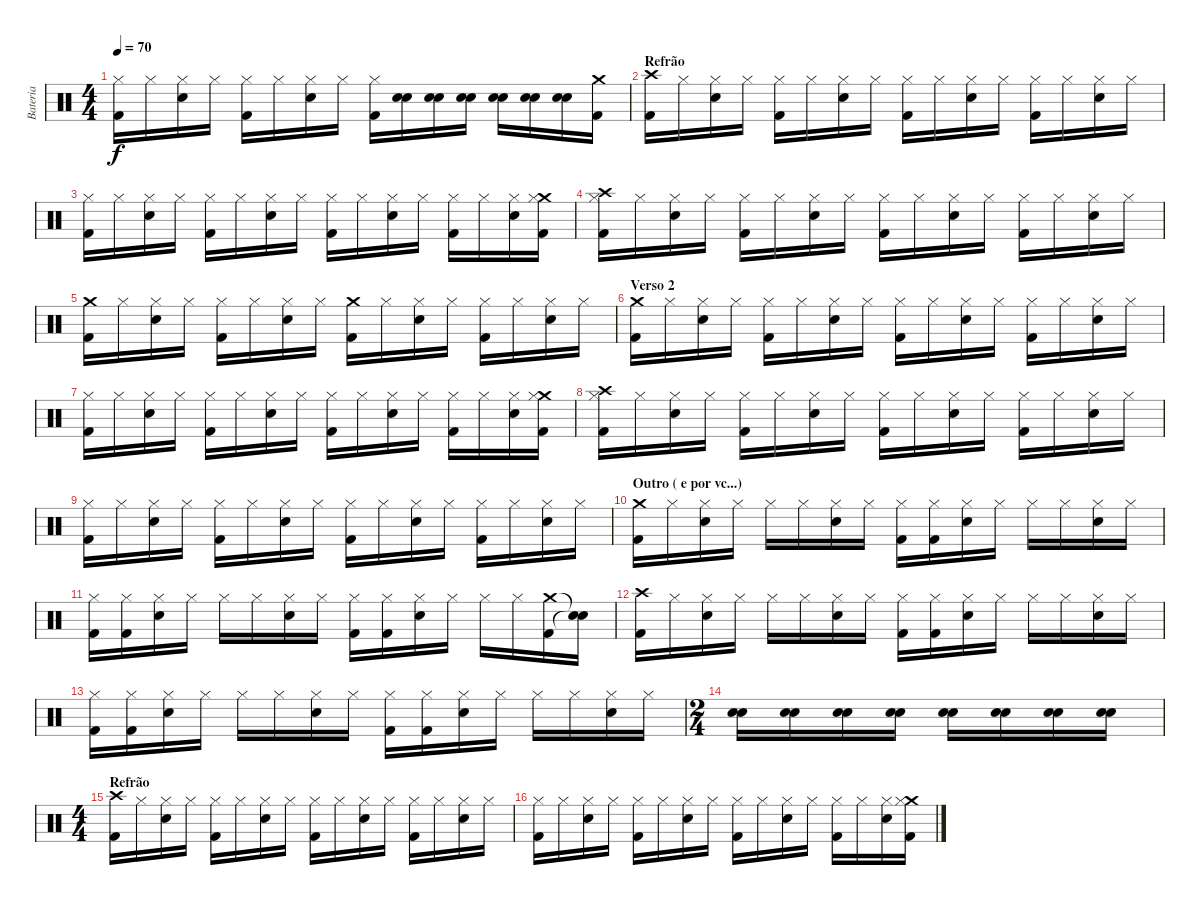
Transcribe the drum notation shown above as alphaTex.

\track ("Bateria" "Bateria") {instrument percussion}
\staff {score}
\articulation defaults
\ts (4 4)
\tempo 70
\clef neutral
\ks c
("Kick (hit) 2" "Hi-Hat (closed)").16{dy f} "Hi-Hat (closed)".16 ("Snare (hit) 2" "Hi-Hat (closed)").16 "Hi-Hat (closed)".16 ("Kick (hit) 2" "Hi-Hat (closed)").16 "Hi-Hat (closed)".16 ("Snare (hit) 2" "Hi-Hat (closed)").16 "Hi-Hat (closed)".16 ("Kick (hit) 2" "Hi-Hat (closed)").16 ("Snare (hit) 2" "Snare (hit) 2").16 ("Snare (hit) 2" "Snare (hit) 2").16 ("Snare (hit) 2" "Snare (hit) 2").16 ("Snare (hit) 2" "Snare (hit) 2").16 ("Snare (hit) 2" "Snare (hit) 2").16 ("Snare (hit) 2" "Snare (hit) 2").16 ("Kick (hit) 2" "Crash medium (hit)").16 |
\section ("" "Refrão")
("Kick (hit) 2" "Crash high (hit)").16 "Hi-Hat (closed)".16 ("Snare (hit) 2" "Hi-Hat (closed)").16 "Hi-Hat (closed)".16 ("Kick (hit) 2" "Hi-Hat (closed)").16 "Hi-Hat (closed)".16 ("Snare (hit) 2" "Hi-Hat (closed)").16 "Hi-Hat (closed)".16 ("Kick (hit) 2" "Hi-Hat (closed)").16 "Hi-Hat (closed)".16 ("Snare (hit) 2" "Hi-Hat (closed)").16 "Hi-Hat (closed)".16 ("Kick (hit) 2" "Hi-Hat (closed)").16 "Hi-Hat (closed)".16 ("Snare (hit) 2" "Hi-Hat (closed)").16 "Hi-Hat (closed)".16 |
("Kick (hit) 2" "Hi-Hat (closed)").16 "Hi-Hat (closed)".16 ("Snare (hit) 2" "Hi-Hat (closed)").16 "Hi-Hat (closed)".16 ("Kick (hit) 2" "Hi-Hat (closed)").16 "Hi-Hat (closed)".16 ("Snare (hit) 2" "Hi-Hat (closed)").16 "Hi-Hat (closed)".16 ("Kick (hit) 2" "Hi-Hat (closed)").16 "Hi-Hat (closed)".16 ("Snare (hit) 2" "Hi-Hat (closed)").16 "Hi-Hat (closed)".16 ("Kick (hit) 2" "Hi-Hat (closed)").16 "Hi-Hat (closed)".16 ("Snare (hit) 2" "Hi-Hat (closed)").16 ("Kick (hit) 2" "Crash medium (hit)" "Hi-Hat (closed)").16 |
("Kick (hit) 2" "Crash high (hit)" "Hi-Hat (closed)").16 "Hi-Hat (closed)".16 ("Snare (hit) 2" "Hi-Hat (closed)").16 "Hi-Hat (closed)".16 ("Kick (hit) 2" "Hi-Hat (closed)").16 "Hi-Hat (closed)".16 ("Snare (hit) 2" "Hi-Hat (closed)").16 "Hi-Hat (closed)".16 ("Kick (hit) 2" "Hi-Hat (closed)").16 "Hi-Hat (closed)".16 ("Snare (hit) 2" "Hi-Hat (closed)").16 "Hi-Hat (closed)".16 ("Kick (hit) 2" "Hi-Hat (closed)").16 "Hi-Hat (closed)".16 ("Snare (hit) 2" "Hi-Hat (closed)").16 "Hi-Hat (closed)".16 |
("Kick (hit) 2" "Crash medium (hit)").16 "Hi-Hat (closed)".16 ("Snare (hit) 2" "Hi-Hat (closed)").16 "Hi-Hat (closed)".16 ("Kick (hit) 2" "Hi-Hat (closed)").16 "Hi-Hat (closed)".16 ("Snare (hit) 2" "Hi-Hat (closed)").16 "Hi-Hat (closed)".16 ("Kick (hit) 2" "Crash medium (hit)").16 "Hi-Hat (closed)".16 ("Snare (hit) 2" "Hi-Hat (closed)").16 "Hi-Hat (closed)".16 ("Kick (hit) 2" "Hi-Hat (closed)").16 "Hi-Hat (closed)".16 ("Snare (hit) 2" "Hi-Hat (closed)").16 "Hi-Hat (closed)".16 |
\section ("" "Verso 2")
("Kick (hit) 2" "Crash medium (hit)").16 "Hi-Hat (closed)".16 ("Snare (hit) 2" "Hi-Hat (closed)").16 "Hi-Hat (closed)".16 ("Kick (hit) 2" "Hi-Hat (closed)").16 "Hi-Hat (closed)".16 ("Snare (hit) 2" "Hi-Hat (closed)").16 "Hi-Hat (closed)".16 ("Kick (hit) 2" "Hi-Hat (closed)").16 "Hi-Hat (closed)".16 ("Snare (hit) 2" "Hi-Hat (closed)").16 "Hi-Hat (closed)".16 ("Kick (hit) 2" "Hi-Hat (closed)").16 "Hi-Hat (closed)".16 ("Snare (hit) 2" "Hi-Hat (closed)").16 "Hi-Hat (closed)".16 |
("Kick (hit) 2" "Hi-Hat (closed)").16 "Hi-Hat (closed)".16 ("Snare (hit) 2" "Hi-Hat (closed)").16 "Hi-Hat (closed)".16 ("Kick (hit) 2" "Hi-Hat (closed)").16 "Hi-Hat (closed)".16 ("Snare (hit) 2" "Hi-Hat (closed)").16 "Hi-Hat (closed)".16 ("Kick (hit) 2" "Hi-Hat (closed)").16 "Hi-Hat (closed)".16 ("Snare (hit) 2" "Hi-Hat (closed)").16 "Hi-Hat (closed)".16 ("Kick (hit) 2" "Hi-Hat (closed)").16 "Hi-Hat (closed)".16 ("Snare (hit) 2" "Hi-Hat (closed)").16 ("Kick (hit) 2" "Crash medium (hit)" "Hi-Hat (closed)").16 |
("Kick (hit) 2" "Crash high (hit)" "Hi-Hat (closed)").16 "Hi-Hat (closed)".16 ("Snare (hit) 2" "Hi-Hat (closed)").16 "Hi-Hat (closed)".16 ("Kick (hit) 2" "Hi-Hat (closed)").16 "Hi-Hat (closed)".16 ("Snare (hit) 2" "Hi-Hat (closed)").16 "Hi-Hat (closed)".16 ("Kick (hit) 2" "Hi-Hat (closed)").16 "Hi-Hat (closed)".16 ("Snare (hit) 2" "Hi-Hat (closed)").16 "Hi-Hat (closed)".16 ("Kick (hit) 2" "Hi-Hat (closed)").16 "Hi-Hat (closed)".16 ("Snare (hit) 2" "Hi-Hat (closed)").16 "Hi-Hat (closed)".16 |
("Kick (hit) 2" "Hi-Hat (closed)").16 "Hi-Hat (closed)".16 ("Snare (hit) 2" "Hi-Hat (closed)").16 "Hi-Hat (closed)".16 ("Kick (hit) 2" "Hi-Hat (closed)").16 "Hi-Hat (closed)".16 ("Snare (hit) 2" "Hi-Hat (closed)").16 "Hi-Hat (closed)".16 ("Kick (hit) 2" "Hi-Hat (closed)").16 "Hi-Hat (closed)".16 ("Snare (hit) 2" "Hi-Hat (closed)").16 "Hi-Hat (closed)".16 ("Kick (hit) 2" "Hi-Hat (closed)").16 "Hi-Hat (closed)".16 ("Snare (hit) 2" "Hi-Hat (closed)").16 "Hi-Hat (closed)".16 |
\section ("" "Outro ( e por vc...)")
("Kick (hit) 2" "Crash medium (hit)").16 "Hi-Hat (closed)".16 ("Snare (hit) 2" "Hi-Hat (closed)").16 "Hi-Hat (closed)".16 "Hi-Hat (closed)".16 "Hi-Hat (closed)".16 ("Snare (hit) 2" "Hi-Hat (closed)").16 "Hi-Hat (closed)".16 ("Kick (hit) 2" "Hi-Hat (closed)").16 ("Kick (hit) 2" "Hi-Hat (closed)").16 ("Snare (hit) 2" "Hi-Hat (closed)").16 "Hi-Hat (closed)".16 "Hi-Hat (closed)".16 "Hi-Hat (closed)".16 ("Snare (hit) 2" "Hi-Hat (closed)").16 "Hi-Hat (closed)".16 |
("Kick (hit) 2" "Hi-Hat (closed)").16 ("Kick (hit) 2" "Hi-Hat (closed)").16 ("Snare (hit) 2" "Hi-Hat (closed)").16 "Hi-Hat (closed)".16 "Hi-Hat (closed)".16 "Hi-Hat (closed)".16 ("Snare (hit) 2" "Hi-Hat (closed)").16 "Hi-Hat (closed)".16 ("Kick (hit) 2" "Hi-Hat (closed)").16 ("Kick (hit) 2" "Hi-Hat (closed)").16 ("Snare (hit) 2" "Hi-Hat (closed)").16 "Hi-Hat (closed)".16 "Hi-Hat (closed)".16 "Hi-Hat (closed)".16 ("Kick (hit) 2" "Crash medium (hit)").16 ("Snare (hit)"{t} "Snare (hit)"{t}).16 |
("Kick (hit) 2" "Crash high (hit)").16 "Hi-Hat (closed)".16 ("Snare (hit) 2" "Hi-Hat (closed)").16 "Hi-Hat (closed)".16 "Hi-Hat (closed)".16 "Hi-Hat (closed)".16 ("Snare (hit) 2" "Hi-Hat (closed)").16 "Hi-Hat (closed)".16 ("Kick (hit) 2" "Hi-Hat (closed)").16 ("Kick (hit) 2" "Hi-Hat (closed)").16 ("Snare (hit) 2" "Hi-Hat (closed)").16 "Hi-Hat (closed)".16 "Hi-Hat (closed)".16 "Hi-Hat (closed)".16 ("Snare (hit) 2" "Hi-Hat (closed)").16 "Hi-Hat (closed)".16 |
("Kick (hit) 2" "Hi-Hat (closed)").16 ("Kick (hit) 2" "Hi-Hat (closed)").16 ("Snare (hit) 2" "Hi-Hat (closed)").16 "Hi-Hat (closed)".16 "Hi-Hat (closed)".16 "Hi-Hat (closed)".16 ("Snare (hit) 2" "Hi-Hat (closed)").16 "Hi-Hat (closed)".16 ("Kick (hit) 2" "Hi-Hat (closed)").16 ("Kick (hit) 2" "Hi-Hat (closed)").16 ("Snare (hit) 2" "Hi-Hat (closed)").16 "Hi-Hat (closed)".16 "Hi-Hat (closed)".16 "Hi-Hat (closed)".16 ("Snare (hit) 2" "Hi-Hat (closed)").16 "Hi-Hat (closed)".16 |
\ts (2 4)
("Snare (hit) 2" "Snare (hit) 2").16 ("Snare (hit) 2" "Snare (hit) 2").16 ("Snare (hit) 2" "Snare (hit) 2").16 ("Snare (hit) 2" "Snare (hit) 2").16 ("Snare (hit) 2" "Snare (hit) 2").16 ("Snare (hit) 2" "Snare (hit) 2").16 ("Snare (hit) 2" "Snare (hit) 2").16 ("Snare (hit) 2" "Snare (hit) 2").16 |
\ts (4 4)
\section ("" "Refrão")
("Kick (hit) 2" "Crash high (hit)").16 "Hi-Hat (closed)".16 ("Snare (hit) 2" "Hi-Hat (closed)").16 "Hi-Hat (closed)".16 ("Kick (hit) 2" "Hi-Hat (closed)").16 "Hi-Hat (closed)".16 ("Snare (hit) 2" "Hi-Hat (closed)").16 "Hi-Hat (closed)".16 ("Kick (hit) 2" "Hi-Hat (closed)").16 "Hi-Hat (closed)".16 ("Snare (hit) 2" "Hi-Hat (closed)").16 "Hi-Hat (closed)".16 ("Kick (hit) 2" "Hi-Hat (closed)").16 "Hi-Hat (closed)".16 ("Snare (hit) 2" "Hi-Hat (closed)").16 "Hi-Hat (closed)".16 |
("Kick (hit) 2" "Hi-Hat (closed)").16 "Hi-Hat (closed)".16 ("Snare (hit) 2" "Hi-Hat (closed)").16 "Hi-Hat (closed)".16 ("Kick (hit) 2" "Hi-Hat (closed)").16 "Hi-Hat (closed)".16 ("Snare (hit) 2" "Hi-Hat (closed)").16 "Hi-Hat (closed)".16 ("Kick (hit) 2" "Hi-Hat (closed)").16 "Hi-Hat (closed)".16 ("Snare (hit) 2" "Hi-Hat (closed)").16 "Hi-Hat (closed)".16 ("Kick (hit) 2" "Hi-Hat (closed)").16 "Hi-Hat (closed)".16 ("Snare (hit) 2" "Hi-Hat (closed)").16 ("Kick (hit) 2" "Crash medium (hit)" "Hi-Hat (closed)").16
